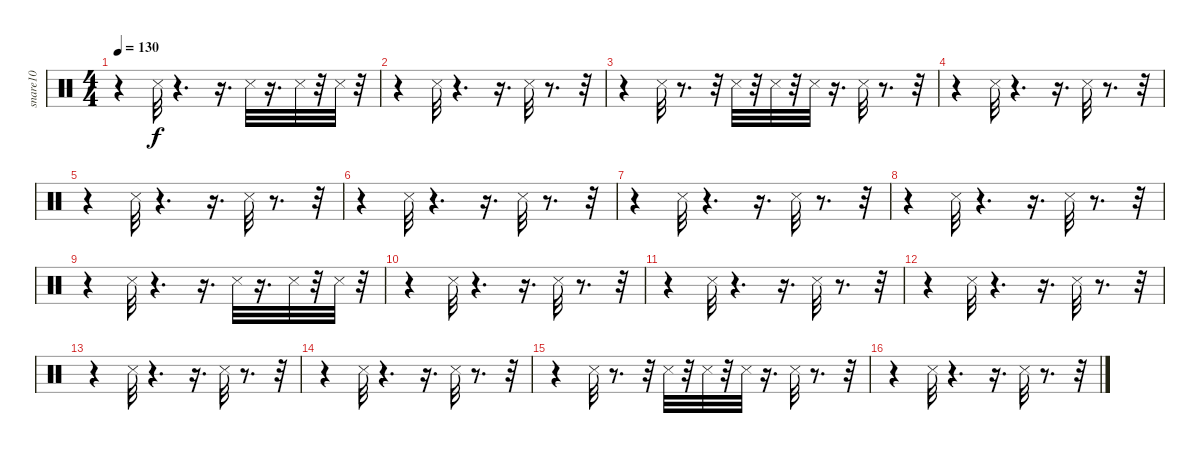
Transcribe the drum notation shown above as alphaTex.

\track ("snare10             " "snare10   ") {instrument percussion}
\staff {score}
\articulation defaults
\ts (4 4)
\tempo 130
\clef neutral
\ks c
r.4{dy f} "Metronome (hit)".32 r.4{d} r.16{d} "Metronome (hit)".32 r.16{d} "Metronome (hit)".32 r.32 "Metronome (hit)".32 r.32 |
r.4 "Metronome (hit)".32 r.4{d} r.16{d} "Metronome (hit)".32 r.8{d} r.32 |
r.4 "Metronome (hit)".32 r.8{d} r.32 "Metronome (hit)".32 r.32 "Metronome (hit)".32 r.32 "Metronome (hit)".32 r.16{d} "Metronome (hit)".32 r.8{d} r.32 |
r.4 "Metronome (hit)".32 r.4{d} r.16{d} "Metronome (hit)".32 r.8{d} r.32 |
r.4 "Metronome (hit)".32 r.4{d} r.16{d} "Metronome (hit)".32 r.8{d} r.32 |
r.4 "Metronome (hit)".32 r.4{d} r.16{d} "Metronome (hit)".32 r.8{d} r.32 |
r.4 "Metronome (hit)".32 r.4{d} r.16{d} "Metronome (hit)".32 r.8{d} r.32 |
r.4 "Metronome (hit)".32 r.4{d} r.16{d} "Metronome (hit)".32 r.8{d} r.32 |
r.4 "Metronome (hit)".32 r.4{d} r.16{d} "Metronome (hit)".32 r.16{d} "Metronome (hit)".32 r.32 "Metronome (hit)".32 r.32 |
r.4 "Metronome (hit)".32 r.4{d} r.16{d} "Metronome (hit)".32 r.8{d} r.32 |
r.4 "Metronome (hit)".32 r.4{d} r.16{d} "Metronome (hit)".32 r.8{d} r.32 |
r.4 "Metronome (hit)".32 r.4{d} r.16{d} "Metronome (hit)".32 r.8{d} r.32 |
r.4 "Metronome (hit)".32 r.4{d} r.16{d} "Metronome (hit)".32 r.8{d} r.32 |
r.4 "Metronome (hit)".32 r.4{d} r.16{d} "Metronome (hit)".32 r.8{d} r.32 |
r.4 "Metronome (hit)".32 r.8{d} r.32 "Metronome (hit)".32 r.32 "Metronome (hit)".32 r.32 "Metronome (hit)".32 r.16{d} "Metronome (hit)".32 r.8{d} r.32 |
r.4 "Metronome (hit)".32 r.4{d} r.16{d} "Metronome (hit)".32 r.8{d} r.32
